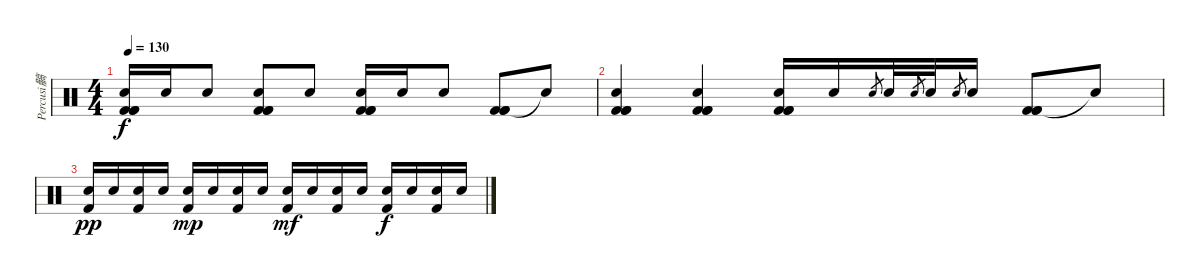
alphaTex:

\track ("Percusi髇" "Percusi髇") {instrument percussion}
\staff {score}
\articulation defaults
\ts (4 4)
\tempo 130
\clef neutral
\ks c
("Kick (hit) 2" "Kick (hit) 2" "Kick (hit) 2" "Electric Snare (hit)").16{dy f} "Electric Snare (hit)".16 "Electric Snare (hit)".8 ("Kick (hit) 2" "Kick (hit) 2" "Kick (hit) 2" "Electric Snare (hit)").8 "Electric Snare (hit)".8 ("Kick (hit) 2" "Kick (hit) 2" "Kick (hit) 2" "Electric Snare (hit)").16 "Electric Snare (hit)".16 "Electric Snare (hit)".8 ("Kick (hit) 2" "Kick (hit) 2" "Kick (hit) 2").8 "Snare (hit)"{t}.8 |
("Kick (hit) 2" "Kick (hit) 2" "Kick (hit) 2" "Electric Snare (hit)").4 ("Kick (hit) 2" "Kick (hit) 2" "Kick (hit) 2" "Electric Snare (hit)").4 ("Kick (hit) 2" "Kick (hit) 2" "Kick (hit) 2" "Electric Snare (hit)").16 "Electric Snare (hit)".16 "Electric Snare (hit)".8{gr} "Electric Snare (hit)".32 "Electric Snare (hit)".8{gr} "Electric Snare (hit)".32 "Electric Snare (hit)".8{gr} "Electric Snare (hit)".16 ("Kick (hit) 2" "Kick (hit) 2" "Kick (hit) 2").8 "Snare (hit)"{t}.8 |
("Kick (hit) 2" "Electric Snare (hit)").16{dy pp} "Electric Snare (hit)".16 ("Kick (hit) 2" "Electric Snare (hit)").16 "Electric Snare (hit)".16 ("Kick (hit) 2" "Electric Snare (hit)").16{dy mp} "Electric Snare (hit)".16 ("Kick (hit) 2" "Electric Snare (hit)").16 "Electric Snare (hit)".16 ("Kick (hit) 2" "Electric Snare (hit)").16{dy mf} "Electric Snare (hit)".16 ("Kick (hit) 2" "Electric Snare (hit)").16 "Electric Snare (hit)".16 ("Kick (hit) 2" "Electric Snare (hit)").16{dy f} "Electric Snare (hit)".16 ("Kick (hit) 2" "Electric Snare (hit)").16 "Electric Snare (hit)".16
